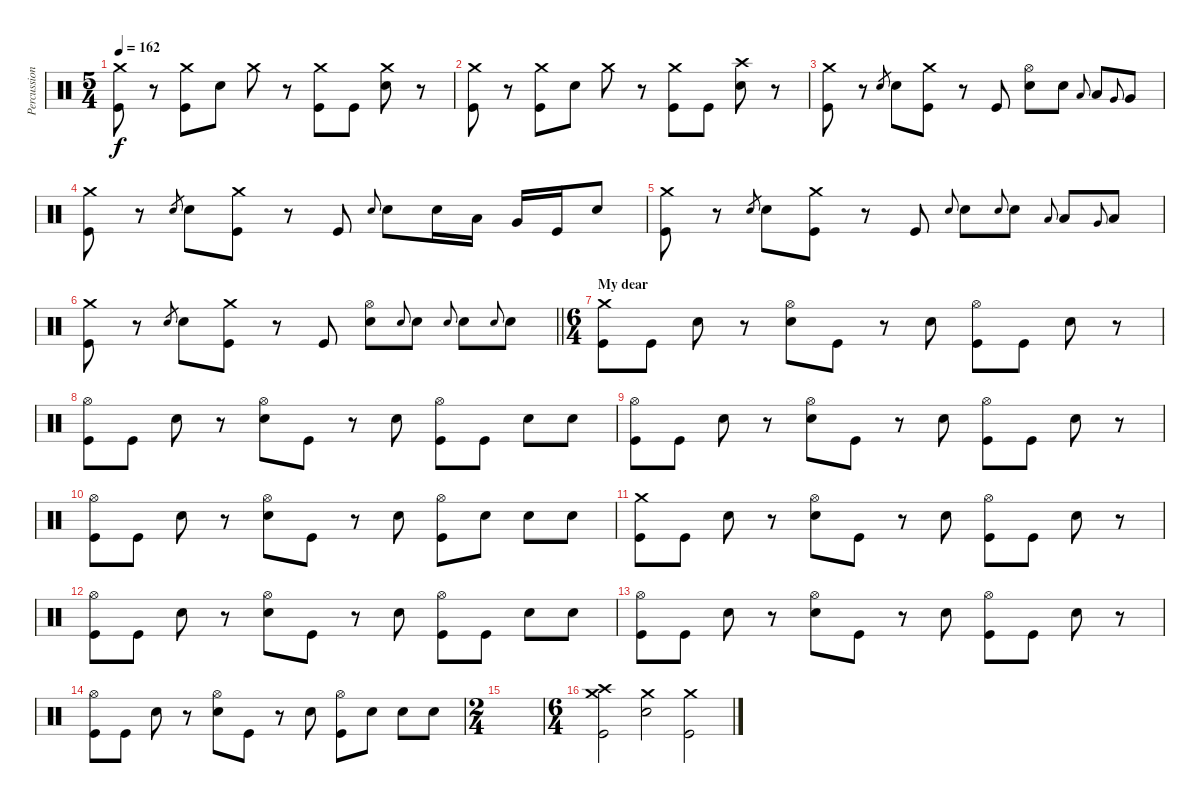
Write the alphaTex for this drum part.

\track ("Percussion" "Percussion") {instrument percussion}
\staff {score}
\articulation defaults
\ts (5 4)
\tempo 162
\clef neutral
\ks c
("Crash medium (hit)" "Kick (hit)").8{dy f} r.8 ("Crash medium (hit)" "Kick (hit)").8 "Snare (hit) 2".8 "Crash medium (hit)".8 r.8 ("Crash medium (hit)" "Kick (hit)").8 "Kick (hit)".8 ("Crash medium (hit)" "Snare (hit) 2").8 r.8 |
("Crash medium (hit)" "Kick (hit)").8 r.8 ("Crash medium (hit)" "Kick (hit)").8 "Snare (hit) 2".8 "Crash medium (hit)".8 r.8 ("Crash medium (hit)" "Kick (hit)").8 "Kick (hit)".8 ("Crash high (hit)" "Snare (hit) 2").8 r.8 |
("Crash medium (hit)" "Kick (hit)").8 r.8 "Snare (hit) 2".8{gr} "Snare (hit) 2".8 ("Crash medium (hit)" "Kick (hit)").8 r.8 "Kick (hit)".8 ("Hi-Hat (open)" "Snare (hit) 2").8 "Snare (hit) 2".8 "Low Tom (hit)".8{gr onbeat} "Low Tom (hit)".8 "Very Low Tom (hit)".8{gr onbeat} "Very Low Tom (hit)".8 |
("Crash medium (hit)" "Kick (hit)").8 r.8 "Snare (hit) 2".8{gr} "Snare (hit) 2".8 ("Crash medium (hit)" "Kick (hit)").8 r.8 "Kick (hit)".8 "Snare (hit) 2".8{gr onbeat} "Snare (hit) 2".8 "Snare (hit) 2".16 "Low Tom (hit)".16 "Very Low Tom (hit)".16 "Kick (hit)".16 "Snare (hit) 2".8 |
("Crash medium (hit)" "Kick (hit)").8 r.8 "Snare (hit) 2".8{gr} "Snare (hit) 2".8 ("Crash medium (hit)" "Kick (hit)").8 r.8 "Kick (hit)".8 "Snare (hit) 2".8{gr onbeat} "Snare (hit) 2".8 "Snare (hit) 2".8{gr onbeat} "Snare (hit) 2".8 "Low Tom (hit)".8{gr onbeat} "Low Tom (hit)".8 "Very Low Tom (hit)".8{gr onbeat} "Low Tom (hit)".8 |
\barLineRight lightlight
("Crash medium (hit)" "Kick (hit)").8 r.8 "Snare (hit) 2".8{gr} "Snare (hit) 2".8 ("Crash medium (hit)" "Kick (hit)").8 r.8 "Kick (hit)".8 ("Hi-Hat (open)" "Snare (hit) 2").8 "Snare (hit) 2".8{gr onbeat} "Snare (hit) 2".8 "Snare (hit) 2".8{gr onbeat} "Snare (hit) 2".8 "Snare (hit) 2".8{gr onbeat} "Snare (hit) 2".8 |
\ts (6 4)
\section ("" "My dear")
("Crash medium (hit)" "Kick (hit)").8 "Kick (hit)".8 "Snare (hit) 2".8 r.8 ("Hi-Hat (open)" "Snare (hit) 2").8 "Kick (hit)".8 r.8 "Snare (hit) 2".8 ("Hi-Hat (open)" "Kick (hit)").8 "Kick (hit)".8 "Snare (hit) 2".8 r.8 |
("Hi-Hat (open)" "Kick (hit)").8 "Kick (hit)".8 "Snare (hit) 2".8 r.8 ("Hi-Hat (open)" "Snare (hit) 2").8 "Kick (hit)".8 r.8 "Snare (hit) 2".8 ("Hi-Hat (open)" "Kick (hit)").8 "Kick (hit)".8 "Snare (hit) 2".8 "Snare (hit) 2".8 |
("Hi-Hat (open)" "Kick (hit)").8 "Kick (hit)".8 "Snare (hit) 2".8 r.8 ("Hi-Hat (open)" "Snare (hit) 2").8 "Kick (hit)".8 r.8 "Snare (hit) 2".8 ("Hi-Hat (open)" "Kick (hit)").8 "Kick (hit)".8 "Snare (hit) 2".8 r.8 |
("Hi-Hat (open)" "Kick (hit)").8 "Kick (hit)".8 "Snare (hit) 2".8 r.8 ("Hi-Hat (open)" "Snare (hit) 2").8 "Kick (hit)".8 r.8 "Snare (hit) 2".8 ("Hi-Hat (open)" "Kick (hit)").8 "Snare (hit) 2".8 "Snare (hit) 2".8 "Snare (hit) 2".8 |
("Crash medium (hit)" "Kick (hit)").8 "Kick (hit)".8 "Snare (hit) 2".8 r.8 ("Hi-Hat (open)" "Snare (hit) 2").8 "Kick (hit)".8 r.8 "Snare (hit) 2".8 ("Hi-Hat (open)" "Kick (hit)").8 "Kick (hit)".8 "Snare (hit) 2".8 r.8 |
("Hi-Hat (open)" "Kick (hit)").8 "Kick (hit)".8 "Snare (hit) 2".8 r.8 ("Hi-Hat (open)" "Snare (hit) 2").8 "Kick (hit)".8 r.8 "Snare (hit) 2".8 ("Hi-Hat (open)" "Kick (hit)").8 "Kick (hit)".8 "Snare (hit) 2".8 "Snare (hit) 2".8 |
("Hi-Hat (open)" "Kick (hit)").8 "Kick (hit)".8 "Snare (hit) 2".8 r.8 ("Hi-Hat (open)" "Snare (hit) 2").8 "Kick (hit)".8 r.8 "Snare (hit) 2".8 ("Hi-Hat (open)" "Kick (hit)").8 "Kick (hit)".8 "Snare (hit) 2".8 r.8 |
("Hi-Hat (open)" "Kick (hit)").8 "Kick (hit)".8 "Snare (hit) 2".8 r.8 ("Hi-Hat (open)" "Snare (hit) 2").8 "Kick (hit)".8 r.8 "Snare (hit) 2".8 ("Hi-Hat (open)" "Kick (hit)").8 "Snare (hit) 2".8 "Snare (hit) 2".8 "Snare (hit) 2".8 |
\ts (2 4)
|
\ts (6 4)
("Crash medium (hit)" "Crash high (hit)" "Kick (hit)").2 ("Crash medium (hit)" "Snare (hit) 2").2 ("Crash medium (hit)" "Kick (hit)").2
